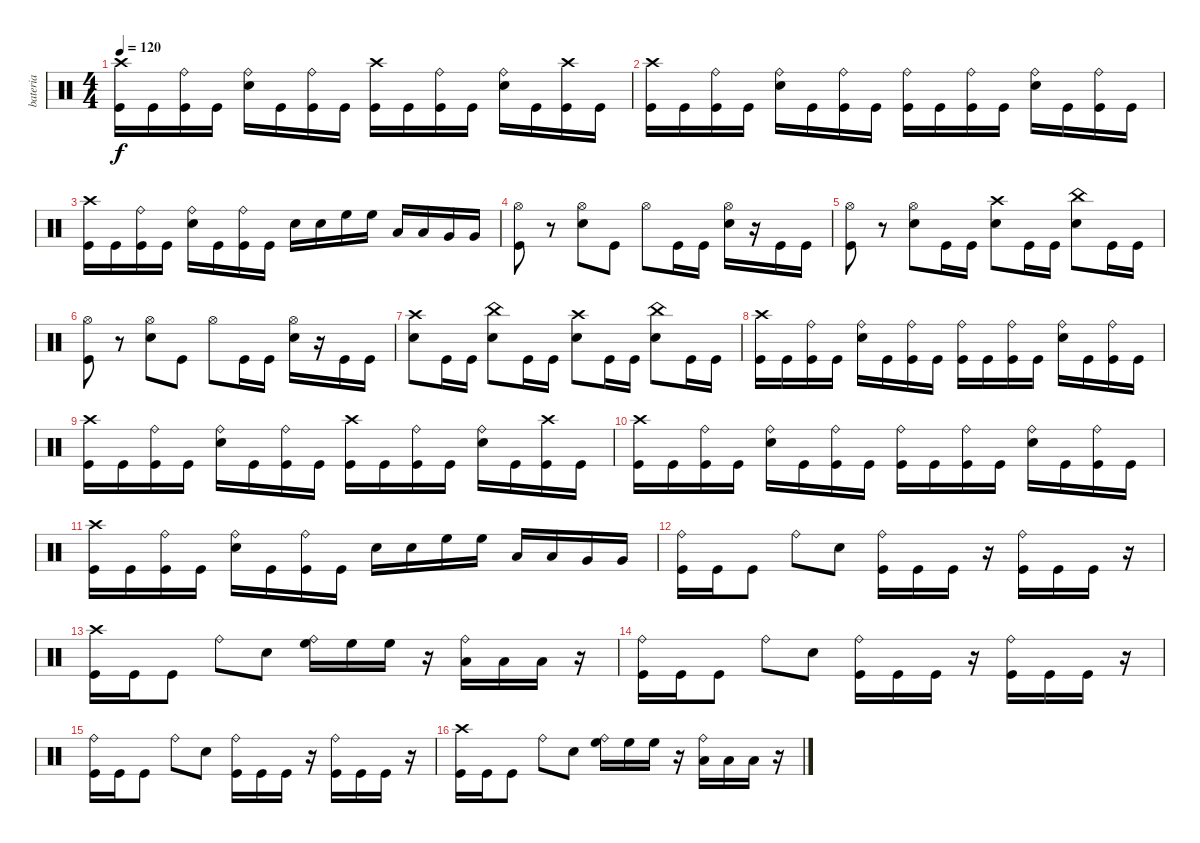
\track ("bateria" "bateria") {instrument percussion}
\staff {score}
\articulation defaults
\ts (4 4)
\tempo 120
\clef neutral
\ks c
("Crash high (hit)" "Kick (hit)").16{dy f} "Kick (hit)".16 ("Ride (bell)" "Kick (hit)").16 "Kick (hit)".16 ("Ride (bell)" "Snare (hit) 2").16 "Kick (hit)".16 ("Ride (bell)" "Kick (hit)").16 "Kick (hit)".16 ("Crash high (hit)" "Kick (hit)").16 "Kick (hit)".16 ("Ride (bell)" "Kick (hit)").16 "Kick (hit)".16 ("Ride (bell)" "Snare (hit) 2").16 "Kick (hit)".16 ("Crash high (hit)" "Kick (hit)").16 "Kick (hit)".16 |
("Crash high (hit)" "Kick (hit)").16 "Kick (hit)".16 ("Ride (bell)" "Kick (hit)").16 "Kick (hit)".16 ("Ride (bell)" "Snare (hit) 2").16 "Kick (hit)".16 ("Ride (bell)" "Kick (hit)").16 "Kick (hit)".16 ("Ride (bell)" "Kick (hit)").16 "Kick (hit)".16 ("Ride (bell)" "Kick (hit)").16 "Kick (hit)".16 ("Ride (bell)" "Snare (hit) 2").16 "Kick (hit)".16 ("Ride (bell)" "Kick (hit)").16 "Kick (hit)".16 |
("Crash high (hit)" "Kick (hit)").16 "Kick (hit)".16 ("Ride (bell)" "Kick (hit)").16 "Kick (hit)".16 ("Ride (bell)" "Snare (hit) 2").16 "Kick (hit)".16 ("Ride (bell)" "Kick (hit)").16 "Kick (hit)".16 "Electric Snare (hit)".16 "Electric Snare (hit)".16 "High Floor Tom (hit)".16 "High Floor Tom (hit)".16 "Low Tom (hit)".16 "Low Tom (hit)".16 "Very Low Tom (hit)".16 "Very Low Tom (hit)".16 |
("Hi-Hat (open)" "Kick (hit)").8 r.8 ("Hi-Hat (open)" "Electric Snare (hit)").8 "Kick (hit)".8 "Hi-Hat (open)".8 "Kick (hit)".16 "Kick (hit)".16 ("Hi-Hat (open)" "Electric Snare (hit)").16 r.16 "Kick (hit)".16 "Kick (hit)".16 |
("Hi-Hat (open)" "Kick (hit)").8 r.8 ("Hi-Hat (open)" "Electric Snare (hit)").8 "Kick (hit)".16 "Kick (hit)".16 ("Crash high (hit)" "Electric Snare (hit)").8 "Kick (hit)".16 "Kick (hit)".16 ("China (hit)" "Electric Snare (hit)").8 "Kick (hit)".16 "Kick (hit)".16 |
("Hi-Hat (open)" "Kick (hit)").8 r.8 ("Hi-Hat (open)" "Electric Snare (hit)").8 "Kick (hit)".8 "Hi-Hat (open)".8 "Kick (hit)".16 "Kick (hit)".16 ("Hi-Hat (open)" "Electric Snare (hit)").16 r.16 "Kick (hit)".16 "Kick (hit)".16 |
("Crash high (hit)" "Electric Snare (hit)").8 "Kick (hit)".16 "Kick (hit)".16 ("China (hit)" "Electric Snare (hit)").8 "Kick (hit)".16 "Kick (hit)".16 ("Crash high (hit)" "Electric Snare (hit)").8 "Kick (hit)".16 "Kick (hit)".16 ("China (hit)" "Electric Snare (hit)").8 "Kick (hit)".16 "Kick (hit)".16 |
("Crash high (hit)" "Kick (hit)").16 "Kick (hit)".16 ("Ride (bell)" "Kick (hit)").16 "Kick (hit)".16 ("Ride (bell)" "Snare (hit) 2").16 "Kick (hit)".16 ("Ride (bell)" "Kick (hit)").16 "Kick (hit)".16 ("Ride (bell)" "Kick (hit)").16 "Kick (hit)".16 ("Ride (bell)" "Kick (hit)").16 "Kick (hit)".16 ("Ride (bell)" "Snare (hit) 2").16 "Kick (hit)".16 ("Ride (bell)" "Kick (hit)").16 "Kick (hit)".16 |
("Crash high (hit)" "Kick (hit)").16 "Kick (hit)".16 ("Ride (bell)" "Kick (hit)").16 "Kick (hit)".16 ("Ride (bell)" "Snare (hit) 2").16 "Kick (hit)".16 ("Ride (bell)" "Kick (hit)").16 "Kick (hit)".16 ("Crash high (hit)" "Kick (hit)").16 "Kick (hit)".16 ("Ride (bell)" "Kick (hit)").16 "Kick (hit)".16 ("Ride (bell)" "Snare (hit) 2").16 "Kick (hit)".16 ("Crash high (hit)" "Kick (hit)").16 "Kick (hit)".16 |
("Crash high (hit)" "Kick (hit)").16 "Kick (hit)".16 ("Ride (bell)" "Kick (hit)").16 "Kick (hit)".16 ("Ride (bell)" "Snare (hit) 2").16 "Kick (hit)".16 ("Ride (bell)" "Kick (hit)").16 "Kick (hit)".16 ("Ride (bell)" "Kick (hit)").16 "Kick (hit)".16 ("Ride (bell)" "Kick (hit)").16 "Kick (hit)".16 ("Ride (bell)" "Snare (hit) 2").16 "Kick (hit)".16 ("Ride (bell)" "Kick (hit)").16 "Kick (hit)".16 |
("Crash high (hit)" "Kick (hit)").16 "Kick (hit)".16 ("Ride (bell)" "Kick (hit)").16 "Kick (hit)".16 ("Ride (bell)" "Snare (hit) 2").16 "Kick (hit)".16 ("Ride (bell)" "Kick (hit)").16 "Kick (hit)".16 "Electric Snare (hit)".16 "Electric Snare (hit)".16 "High Floor Tom (hit)".16 "High Floor Tom (hit)".16 "Low Tom (hit)".16 "Low Tom (hit)".16 "Very Low Tom (hit)".16 "Very Low Tom (hit)".16 |
("Ride (bell)" "Kick (hit)").16 "Kick (hit)".16 "Kick (hit)".8 "Ride (bell)".8 "Snare (hit) 2".8 ("Ride (bell)" "Kick (hit)").16 "Kick (hit)".16 "Kick (hit)".16 r.16 ("Ride (bell)" "Kick (hit)").16 "Kick (hit)".16 "Kick (hit)".16 r.16 |
("Crash high (hit)" "Kick (hit)").16 "Kick (hit)".16 "Kick (hit)".8 "Ride (bell)".8 "Snare (hit) 2".8 ("Ride (bell)" "High Floor Tom (hit)").16 "High Floor Tom (hit)".16 "High Floor Tom (hit)".16 r.16 ("Ride (bell)" "Low Tom (hit)").16 "Low Tom (hit)".16 "Low Tom (hit)".16 r.16 |
("Ride (bell)" "Kick (hit)").16 "Kick (hit)".16 "Kick (hit)".8 "Ride (bell)".8 "Snare (hit) 2".8 ("Ride (bell)" "Kick (hit)").16 "Kick (hit)".16 "Kick (hit)".16 r.16 ("Ride (bell)" "Kick (hit)").16 "Kick (hit)".16 "Kick (hit)".16 r.16 |
("Ride (bell)" "Kick (hit)").16 "Kick (hit)".16 "Kick (hit)".8 "Ride (bell)".8 "Snare (hit) 2".8 ("Ride (bell)" "Kick (hit)").16 "Kick (hit)".16 "Kick (hit)".16 r.16 ("Ride (bell)" "Kick (hit)").16 "Kick (hit)".16 "Kick (hit)".16 r.16 |
("Crash high (hit)" "Kick (hit)").16 "Kick (hit)".16 "Kick (hit)".8 "Ride (bell)".8 "Snare (hit) 2".8 ("Ride (bell)" "High Floor Tom (hit)").16 "High Floor Tom (hit)".16 "High Floor Tom (hit)".16 r.16 ("Ride (bell)" "Low Tom (hit)").16 "Low Tom (hit)".16 "Low Tom (hit)".16 r.16
